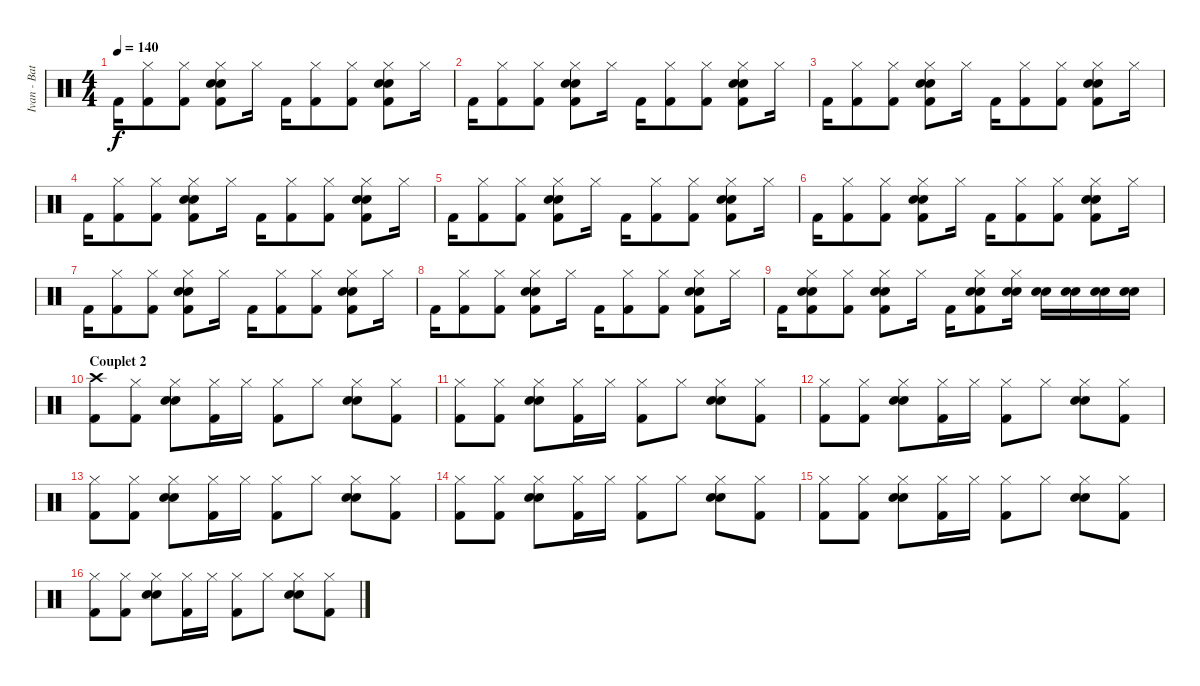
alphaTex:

\track ("Ivan - Batterie" "Ivan - Bat") {instrument percussion}
\staff {score}
\articulation defaults
\ts (4 4)
\tempo 140
\clef neutral
\ks c "Kick (hit) 2".16{dy f}
("Hi-Hat (closed)" "Kick (hit) 2").8 ("Hi-Hat (closed)" "Kick (hit) 2").8 ("Hi-Hat (closed)" "Electric Snare (hit)" "Snare (hit) 2" "Kick (hit) 2").8 "Hi-Hat (closed)".16 "Kick (hit) 2".16 ("Hi-Hat (closed)" "Kick (hit) 2").8 ("Hi-Hat (closed)" "Kick (hit) 2").8 ("Hi-Hat (closed)" "Electric Snare (hit)" "Snare (hit) 2" "Kick (hit) 2").8 "Hi-Hat (closed)".16 |
"Kick (hit) 2".16 ("Hi-Hat (closed)" "Kick (hit) 2").8 ("Hi-Hat (closed)" "Kick (hit) 2").8 ("Hi-Hat (closed)" "Electric Snare (hit)" "Snare (hit) 2" "Kick (hit) 2").8 "Hi-Hat (closed)".16 "Kick (hit) 2".16 ("Hi-Hat (closed)" "Kick (hit) 2").8 ("Hi-Hat (closed)" "Kick (hit) 2").8 ("Hi-Hat (closed)" "Electric Snare (hit)" "Snare (hit) 2" "Kick (hit) 2").8 "Hi-Hat (closed)".16 |
"Kick (hit) 2".16 ("Hi-Hat (closed)" "Kick (hit) 2").8 ("Hi-Hat (closed)" "Kick (hit) 2").8 ("Hi-Hat (closed)" "Electric Snare (hit)" "Snare (hit) 2" "Kick (hit) 2").8 "Hi-Hat (closed)".16 "Kick (hit) 2".16 ("Hi-Hat (closed)" "Kick (hit) 2").8 ("Hi-Hat (closed)" "Kick (hit) 2").8 ("Hi-Hat (closed)" "Electric Snare (hit)" "Snare (hit) 2" "Kick (hit) 2").8 "Hi-Hat (closed)".16 |
"Kick (hit) 2".16 ("Hi-Hat (closed)" "Kick (hit) 2").8 ("Hi-Hat (closed)" "Kick (hit) 2").8 ("Hi-Hat (closed)" "Electric Snare (hit)" "Snare (hit) 2" "Kick (hit) 2").8 "Hi-Hat (closed)".16 "Kick (hit) 2".16 ("Hi-Hat (closed)" "Kick (hit) 2").8 ("Hi-Hat (closed)" "Kick (hit) 2").8 ("Hi-Hat (closed)" "Electric Snare (hit)" "Snare (hit) 2" "Kick (hit) 2").8 "Hi-Hat (closed)".16 |
"Kick (hit) 2".16 ("Hi-Hat (closed)" "Kick (hit) 2").8 ("Hi-Hat (closed)" "Kick (hit) 2").8 ("Hi-Hat (closed)" "Electric Snare (hit)" "Snare (hit) 2" "Kick (hit) 2").8 "Hi-Hat (closed)".16 "Kick (hit) 2".16 ("Hi-Hat (closed)" "Kick (hit) 2").8 ("Hi-Hat (closed)" "Kick (hit) 2").8 ("Hi-Hat (closed)" "Electric Snare (hit)" "Snare (hit) 2" "Kick (hit) 2").8 "Hi-Hat (closed)".16 |
"Kick (hit) 2".16 ("Hi-Hat (closed)" "Kick (hit) 2").8 ("Hi-Hat (closed)" "Kick (hit) 2").8 ("Hi-Hat (closed)" "Electric Snare (hit)" "Snare (hit) 2" "Kick (hit) 2").8 "Hi-Hat (closed)".16 "Kick (hit) 2".16 ("Hi-Hat (closed)" "Kick (hit) 2").8 ("Hi-Hat (closed)" "Kick (hit) 2").8 ("Hi-Hat (closed)" "Electric Snare (hit)" "Snare (hit) 2" "Kick (hit) 2").8 "Hi-Hat (closed)".16 |
"Kick (hit) 2".16 ("Hi-Hat (closed)" "Kick (hit) 2").8 ("Hi-Hat (closed)" "Kick (hit) 2").8 ("Hi-Hat (closed)" "Electric Snare (hit)" "Snare (hit) 2" "Kick (hit) 2").8 "Hi-Hat (closed)".16 "Kick (hit) 2".16 ("Hi-Hat (closed)" "Kick (hit) 2").8 ("Hi-Hat (closed)" "Kick (hit) 2").8 ("Hi-Hat (closed)" "Electric Snare (hit)" "Snare (hit) 2" "Kick (hit) 2").8 "Hi-Hat (closed)".16 |
"Kick (hit) 2".16 ("Hi-Hat (closed)" "Kick (hit) 2").8 ("Hi-Hat (closed)" "Kick (hit) 2").8 ("Hi-Hat (closed)" "Electric Snare (hit)" "Snare (hit) 2" "Kick (hit) 2").8 "Hi-Hat (closed)".16 "Kick (hit) 2".16 ("Hi-Hat (closed)" "Kick (hit) 2").8 ("Hi-Hat (closed)" "Kick (hit) 2").8 ("Hi-Hat (closed)" "Electric Snare (hit)" "Snare (hit) 2" "Kick (hit) 2").8 "Hi-Hat (closed)".16 |
"Kick (hit) 2".16 ("Hi-Hat (closed)" "Electric Snare (hit)" "Snare (hit) 2" "Kick (hit) 2").8 ("Hi-Hat (closed)" "Kick (hit) 2").8 ("Hi-Hat (closed)" "Electric Snare (hit)" "Snare (hit) 2" "Kick (hit) 2").8 "Hi-Hat (closed)".16 "Kick (hit) 2".16 ("Hi-Hat (closed)" "Electric Snare (hit)" "Snare (hit) 2" "Kick (hit) 2").8 ("Hi-Hat (closed)" "Electric Snare (hit)" "Snare (hit) 2").16 ("Electric Snare (hit)" "Snare (hit) 2").16 ("Electric Snare (hit)" "Snare (hit) 2").16 ("Electric Snare (hit)" "Snare (hit) 2").16 ("Electric Snare (hit)" "Snare (hit) 2").16 |
\section ("" "Couplet 2")
("Crash high (hit)" "Kick (hit) 2").8 ("Hi-Hat (closed)" "Kick (hit) 2").8 ("Hi-Hat (closed)" "Electric Snare (hit)" "Snare (hit) 2").8 ("Hi-Hat (closed)" "Kick (hit) 2").16 "Hi-Hat (closed)".16 ("Hi-Hat (closed)" "Kick (hit) 2").8 "Hi-Hat (closed)".8 ("Hi-Hat (closed)" "Electric Snare (hit)" "Snare (hit) 2").8 ("Hi-Hat (closed)" "Kick (hit) 2").8 |
("Hi-Hat (closed)" "Kick (hit) 2").8 ("Hi-Hat (closed)" "Kick (hit) 2").8 ("Hi-Hat (closed)" "Electric Snare (hit)" "Snare (hit) 2").8 ("Hi-Hat (closed)" "Kick (hit) 2").16 "Hi-Hat (closed)".16 ("Hi-Hat (closed)" "Kick (hit) 2").8 "Hi-Hat (closed)".8 ("Hi-Hat (closed)" "Electric Snare (hit)" "Snare (hit) 2").8 ("Hi-Hat (closed)" "Kick (hit) 2").8 |
("Hi-Hat (closed)" "Kick (hit) 2").8 ("Hi-Hat (closed)" "Kick (hit) 2").8 ("Hi-Hat (closed)" "Electric Snare (hit)" "Snare (hit) 2").8 ("Hi-Hat (closed)" "Kick (hit) 2").16 "Hi-Hat (closed)".16 ("Hi-Hat (closed)" "Kick (hit) 2").8 "Hi-Hat (closed)".8 ("Hi-Hat (closed)" "Electric Snare (hit)" "Snare (hit) 2").8 ("Hi-Hat (closed)" "Kick (hit) 2").8 |
("Hi-Hat (closed)" "Kick (hit) 2").8 ("Hi-Hat (closed)" "Kick (hit) 2").8 ("Hi-Hat (closed)" "Electric Snare (hit)" "Snare (hit) 2").8 ("Hi-Hat (closed)" "Kick (hit) 2").16 "Hi-Hat (closed)".16 ("Hi-Hat (closed)" "Kick (hit) 2").8 "Hi-Hat (closed)".8 ("Hi-Hat (closed)" "Electric Snare (hit)" "Snare (hit) 2").8 ("Hi-Hat (closed)" "Kick (hit) 2").8 |
("Hi-Hat (closed)" "Kick (hit) 2").8 ("Hi-Hat (closed)" "Kick (hit) 2").8 ("Hi-Hat (closed)" "Electric Snare (hit)" "Snare (hit) 2").8 ("Hi-Hat (closed)" "Kick (hit) 2").16 "Hi-Hat (closed)".16 ("Hi-Hat (closed)" "Kick (hit) 2").8 "Hi-Hat (closed)".8 ("Hi-Hat (closed)" "Electric Snare (hit)" "Snare (hit) 2").8 ("Hi-Hat (closed)" "Kick (hit) 2").8 |
("Hi-Hat (closed)" "Kick (hit) 2").8 ("Hi-Hat (closed)" "Kick (hit) 2").8 ("Hi-Hat (closed)" "Electric Snare (hit)" "Snare (hit) 2").8 ("Hi-Hat (closed)" "Kick (hit) 2").16 "Hi-Hat (closed)".16 ("Hi-Hat (closed)" "Kick (hit) 2").8 "Hi-Hat (closed)".8 ("Hi-Hat (closed)" "Electric Snare (hit)" "Snare (hit) 2").8 ("Hi-Hat (closed)" "Kick (hit) 2").8 |
("Hi-Hat (closed)" "Kick (hit) 2").8 ("Hi-Hat (closed)" "Kick (hit) 2").8 ("Hi-Hat (closed)" "Electric Snare (hit)" "Snare (hit) 2").8 ("Hi-Hat (closed)" "Kick (hit) 2").16 "Hi-Hat (closed)".16 ("Hi-Hat (closed)" "Kick (hit) 2").8 "Hi-Hat (closed)".8 ("Hi-Hat (closed)" "Electric Snare (hit)" "Snare (hit) 2").8 ("Hi-Hat (closed)" "Kick (hit) 2").8
